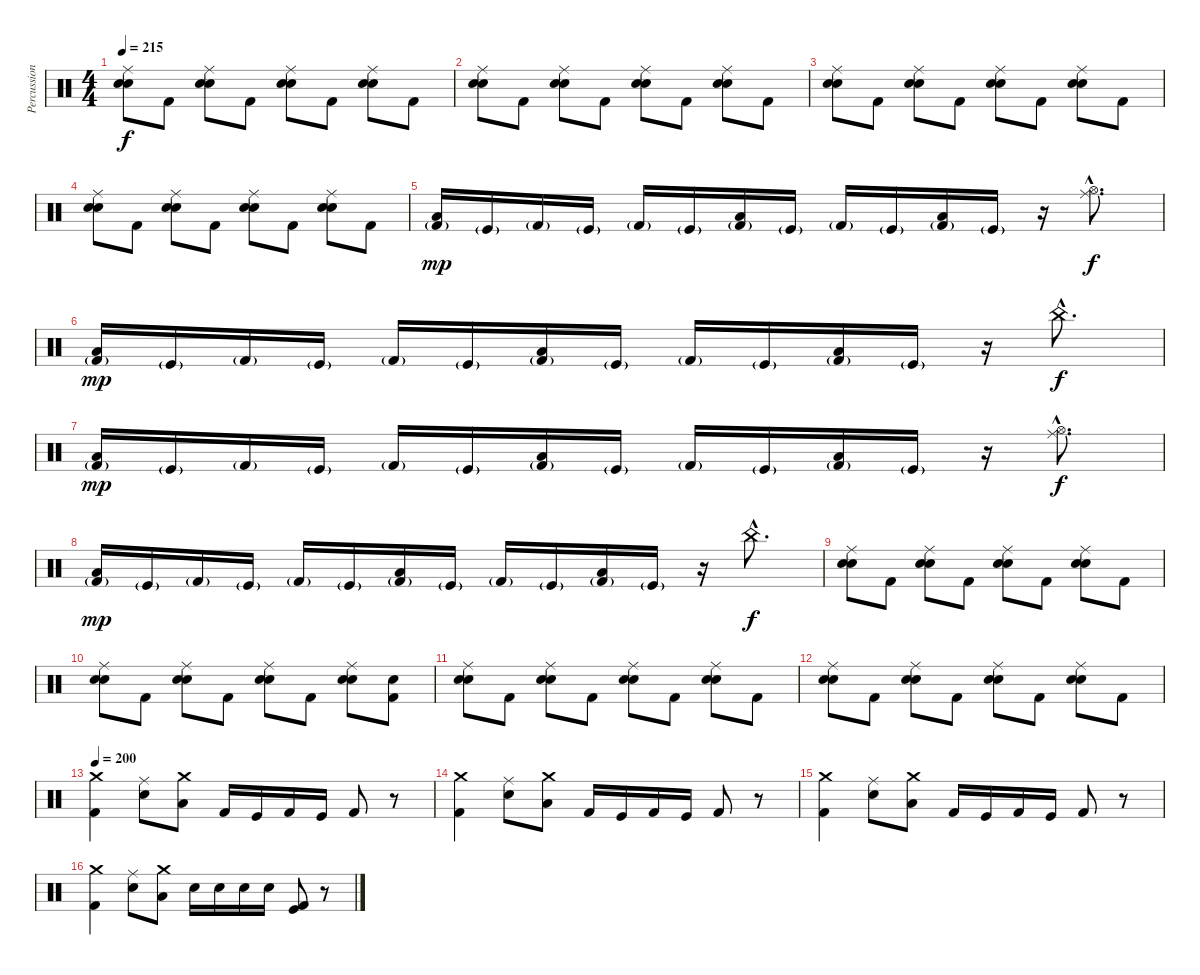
\track ("Percussion" "Percussion") {instrument percussion}
\staff {score}
\articulation defaults
\ts (4 4)
\tempo 215
\clef neutral
\ks c
("Electric Snare (hit)" "Snare (hit) 2" "Ride (middle)").8{dy f} "Kick (hit) 2".8 ("Electric Snare (hit)" "Snare (hit) 2" "Ride (middle)").8 "Kick (hit) 2".8 ("Electric Snare (hit)" "Snare (hit) 2" "Ride (middle)").8 "Kick (hit) 2".8 ("Electric Snare (hit)" "Snare (hit) 2" "Ride (middle)").8 "Kick (hit) 2".8 |
("Electric Snare (hit)" "Snare (hit) 2" "Ride (middle)").8 "Kick (hit) 2".8 ("Electric Snare (hit)" "Snare (hit) 2" "Ride (middle)").8 "Kick (hit) 2".8 ("Electric Snare (hit)" "Snare (hit) 2" "Ride (middle)").8 "Kick (hit) 2".8 ("Electric Snare (hit)" "Snare (hit) 2" "Ride (middle)").8 "Kick (hit) 2".8 |
("Electric Snare (hit)" "Snare (hit) 2" "Ride (middle)").8 "Kick (hit) 2".8 ("Electric Snare (hit)" "Snare (hit) 2" "Ride (middle)").8 "Kick (hit) 2".8 ("Electric Snare (hit)" "Snare (hit) 2" "Ride (middle)").8 "Kick (hit) 2".8 ("Electric Snare (hit)" "Snare (hit) 2" "Ride (middle)").8 "Kick (hit) 2".8 |
("Electric Snare (hit)" "Snare (hit) 2" "Ride (middle)").8 "Kick (hit) 2".8 ("Electric Snare (hit)" "Snare (hit) 2" "Ride (middle)").8 "Kick (hit) 2".8 ("Electric Snare (hit)" "Snare (hit) 2" "Ride (middle)").8 "Kick (hit) 2".8 ("Electric Snare (hit)" "Snare (hit) 2" "Ride (middle)").8 "Kick (hit) 2".8 |
("Low Tom (hit)" "Kick (hit) 2"{g}).16{dy mp} "Kick (hit)"{g}.16 "Kick (hit) 2"{g}.16 "Kick (hit)"{g}.16 "Kick (hit) 2"{g}.16 "Kick (hit)"{g}.16 ("Low Tom (hit)" "Kick (hit) 2"{g}).16 "Kick (hit)"{g}.16 "Kick (hit) 2"{g}.16 "Kick (hit)"{g}.16 ("Low Tom (hit)" "Kick (hit) 2"{g}).16 "Kick (hit)"{g}.16 r.16 ("Ride (middle)"{hac} "Hi-Hat (open)"{hac}).8{d dy f} |
("Low Tom (hit)" "Kick (hit) 2"{g}).16{dy mp} "Kick (hit)"{g}.16 "Kick (hit) 2"{g}.16 "Kick (hit)"{g}.16 "Kick (hit) 2"{g}.16 "Kick (hit)"{g}.16 ("Low Tom (hit)" "Kick (hit) 2"{g}).16 "Kick (hit)"{g}.16 "Kick (hit) 2"{g}.16 "Kick (hit)"{g}.16 ("Low Tom (hit)" "Kick (hit) 2"{g}).16 "Kick (hit)"{g}.16 r.16 "China (hit)"{hac}.8{d dy f} |
("Low Tom (hit)" "Kick (hit) 2"{g}).16{dy mp} "Kick (hit)"{g}.16 "Kick (hit) 2"{g}.16 "Kick (hit)"{g}.16 "Kick (hit) 2"{g}.16 "Kick (hit)"{g}.16 ("Low Tom (hit)" "Kick (hit) 2"{g}).16 "Kick (hit)"{g}.16 "Kick (hit) 2"{g}.16 "Kick (hit)"{g}.16 ("Low Tom (hit)" "Kick (hit) 2"{g}).16 "Kick (hit)"{g}.16 r.16 ("Ride (middle)"{hac} "Hi-Hat (open)"{hac}).8{d dy f} |
("Low Tom (hit)" "Kick (hit) 2"{g}).16{dy mp} "Kick (hit)"{g}.16 "Kick (hit) 2"{g}.16 "Kick (hit)"{g}.16 "Kick (hit) 2"{g}.16 "Kick (hit)"{g}.16 ("Low Tom (hit)" "Kick (hit) 2"{g}).16 "Kick (hit)"{g}.16 "Kick (hit) 2"{g}.16 "Kick (hit)"{g}.16 ("Low Tom (hit)" "Kick (hit) 2"{g}).16 "Kick (hit)"{g}.16 r.16 "China (hit)"{hac}.8{d dy f} |
("Electric Snare (hit)" "Snare (hit) 2" "Ride (middle)").8 "Kick (hit) 2".8 ("Electric Snare (hit)" "Snare (hit) 2" "Ride (middle)").8 "Kick (hit) 2".8 ("Electric Snare (hit)" "Snare (hit) 2" "Ride (middle)").8 "Kick (hit) 2".8 ("Electric Snare (hit)" "Snare (hit) 2" "Ride (middle)").8 "Kick (hit) 2".8 |
("Electric Snare (hit)" "Snare (hit) 2" "Ride (middle)").8 "Kick (hit) 2".8 ("Electric Snare (hit)" "Snare (hit) 2" "Ride (middle)").8 "Kick (hit) 2".8 ("Electric Snare (hit)" "Snare (hit) 2" "Ride (middle)").8 "Kick (hit) 2".8 ("Electric Snare (hit)" "Snare (hit) 2" "Ride (middle)").8 ("Electric Snare (hit)" "Kick (hit) 2").8 |
("Electric Snare (hit)" "Snare (hit) 2" "Ride (middle)").8 "Kick (hit) 2".8 ("Electric Snare (hit)" "Snare (hit) 2" "Ride (middle)").8 "Kick (hit) 2".8 ("Electric Snare (hit)" "Snare (hit) 2" "Ride (middle)").8 "Kick (hit) 2".8 ("Electric Snare (hit)" "Snare (hit) 2" "Ride (middle)").8 "Kick (hit) 2".8 |
("Electric Snare (hit)" "Snare (hit) 2" "Ride (middle)").8 "Kick (hit) 2".8 ("Electric Snare (hit)" "Snare (hit) 2" "Ride (middle)").8 "Kick (hit) 2".8 ("Electric Snare (hit)" "Snare (hit) 2" "Ride (middle)").8 "Kick (hit) 2".8 ("Electric Snare (hit)" "Snare (hit) 2" "Ride (middle)").8 "Kick (hit) 2".8 |
\tempo 200
("Kick (hit) 2" "Crash medium (hit)").4 ("Electric Snare (hit)" "Ride (middle)").8 ("Low Tom (hit)" "Crash medium (hit)").8 "Kick (hit) 2".16 "Kick (hit)".16 "Kick (hit) 2".16 "Kick (hit)".16 "Kick (hit) 2".8 r.8 |
("Kick (hit) 2" "Crash medium (hit)").4 ("Electric Snare (hit)" "Ride (middle)").8 ("Low Tom (hit)" "Crash medium (hit)").8 "Kick (hit) 2".16 "Kick (hit)".16 "Kick (hit) 2".16 "Kick (hit)".16 "Kick (hit) 2".8 r.8 |
("Kick (hit) 2" "Crash medium (hit)").4 ("Electric Snare (hit)" "Ride (middle)").8 ("Low Tom (hit)" "Crash medium (hit)").8 "Kick (hit) 2".16 "Kick (hit)".16 "Kick (hit) 2".16 "Kick (hit)".16 "Kick (hit) 2".8 r.8 |
("Kick (hit) 2" "Crash medium (hit)").4 ("Electric Snare (hit)" "Ride (middle)").8 ("Low Tom (hit)" "Crash medium (hit)").8 "Electric Snare (hit)".16 "Electric Snare (hit)".16 "Electric Snare (hit)".16 "Electric Snare (hit)".16 ("Kick (hit) 2" "Kick (hit)").8 r.8
